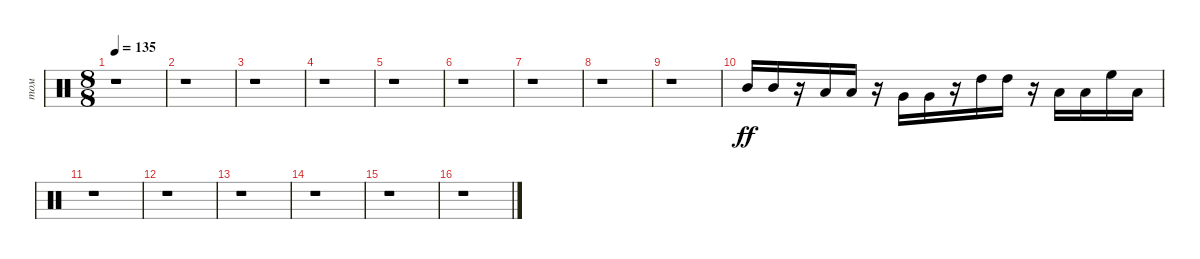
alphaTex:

\track ("том" "том") {instrument percussion}
\staff {score}
\articulation defaults
\ts (8 8)
\tempo 135
\clef neutral
\ks c
r.1{dy ff} |
r.1 |
r.1 |
r.1 |
r.1 |
r.1 |
r.1 |
r.1 |
r.1 |
"Mid Tom (hit)".16 "Mid Tom (hit)".16 r.16 "Low Tom (hit)".16 "Low Tom (hit)".16 r.16 "Very Low Tom (hit)".16 "Very Low Tom (hit)".16 r.16 "High Tom (hit)".16 "High Tom (hit)".16 r.16 "Low Floor Tom (hit)".16 "Low Floor Tom (hit)".16 "High Floor Tom (hit)".16 "Low Floor Tom (hit)".16 |
r.1 |
r.1 |
r.1 |
r.1 |
r.1 |
r.1
